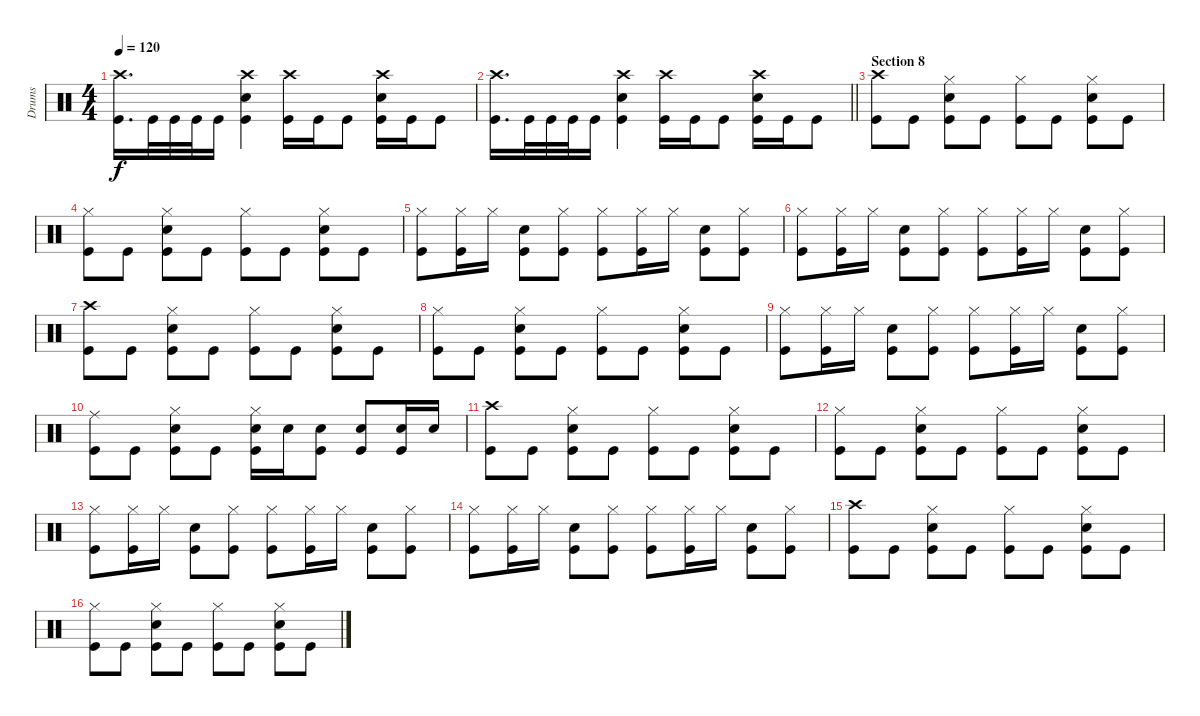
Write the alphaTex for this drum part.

\track ("Drums" "Drums") {instrument percussion}
\staff {score}
\articulation defaults
\ts (4 4)
\tempo 120
\clef neutral
\ks c
("Crash high (hit)" "Kick (hit)").16{d dy f} "Kick (hit)".32 "Kick (hit)".32 "Kick (hit)".32 "Kick (hit)".16 ("Crash high (hit)" "Snare (hit) 2" "Kick (hit)").4 ("Crash high (hit)" "Kick (hit)").16 "Kick (hit)".16 "Kick (hit)".8 ("Crash high (hit)" "Snare (hit) 2" "Kick (hit)").16 "Kick (hit)".16 "Kick (hit)".8 |
\barLineRight lightlight
("Crash high (hit)" "Kick (hit)").16{d} "Kick (hit)".32 "Kick (hit)".32 "Kick (hit)".32 "Kick (hit)".16 ("Crash high (hit)" "Snare (hit) 2" "Kick (hit)").4 ("Crash high (hit)" "Kick (hit)").16 "Kick (hit)".16 "Kick (hit)".8 ("Crash high (hit)" "Snare (hit) 2" "Kick (hit)").16 "Kick (hit)".16 "Kick (hit)".8 |
\section ("" "Section 8")
("Crash high (hit)" "Kick (hit)").8 "Kick (hit)".8 ("Hi-Hat (closed)" "Snare (hit) 2" "Kick (hit)").8 "Kick (hit)".8 ("Hi-Hat (closed)" "Kick (hit)").8 "Kick (hit)".8 ("Hi-Hat (closed)" "Snare (hit) 2" "Kick (hit)").8 "Kick (hit)".8 |
("Hi-Hat (closed)" "Kick (hit)").8 "Kick (hit)".8 ("Hi-Hat (closed)" "Snare (hit) 2" "Kick (hit)").8 "Kick (hit)".8 ("Hi-Hat (closed)" "Kick (hit)").8 "Kick (hit)".8 ("Hi-Hat (closed)" "Snare (hit) 2" "Kick (hit)").8 "Kick (hit)".8 |
("Hi-Hat (closed)" "Kick (hit)").8 ("Hi-Hat (closed)" "Kick (hit)").16 "Hi-Hat (closed)".16 ("Snare (hit) 2" "Kick (hit)").8 ("Hi-Hat (closed)" "Kick (hit)").8 ("Hi-Hat (closed)" "Kick (hit)").8 ("Hi-Hat (closed)" "Kick (hit)").16 "Hi-Hat (closed)".16 ("Snare (hit) 2" "Kick (hit)").8 ("Hi-Hat (closed)" "Kick (hit)").8 |
("Hi-Hat (closed)" "Kick (hit)").8 ("Hi-Hat (closed)" "Kick (hit)").16 "Hi-Hat (closed)".16 ("Snare (hit) 2" "Kick (hit)").8 ("Hi-Hat (closed)" "Kick (hit)").8 ("Hi-Hat (closed)" "Kick (hit)").8 ("Hi-Hat (closed)" "Kick (hit)").16 "Hi-Hat (closed)".16 ("Snare (hit) 2" "Kick (hit)").8 ("Hi-Hat (closed)" "Kick (hit)").8 |
("Crash high (hit)" "Kick (hit)").8 "Kick (hit)".8 ("Hi-Hat (closed)" "Snare (hit) 2" "Kick (hit)").8 "Kick (hit)".8 ("Hi-Hat (closed)" "Kick (hit)").8 "Kick (hit)".8 ("Hi-Hat (closed)" "Snare (hit) 2" "Kick (hit)").8 "Kick (hit)".8 |
("Hi-Hat (closed)" "Kick (hit)").8 "Kick (hit)".8 ("Hi-Hat (closed)" "Snare (hit) 2" "Kick (hit)").8 "Kick (hit)".8 ("Hi-Hat (closed)" "Kick (hit)").8 "Kick (hit)".8 ("Hi-Hat (closed)" "Snare (hit) 2" "Kick (hit)").8 "Kick (hit)".8 |
("Hi-Hat (closed)" "Kick (hit)").8 ("Hi-Hat (closed)" "Kick (hit)").16 "Hi-Hat (closed)".16 ("Snare (hit) 2" "Kick (hit)").8 ("Hi-Hat (closed)" "Kick (hit)").8 ("Hi-Hat (closed)" "Kick (hit)").8 ("Hi-Hat (closed)" "Kick (hit)").16 "Hi-Hat (closed)".16 ("Snare (hit) 2" "Kick (hit)").8 ("Hi-Hat (closed)" "Kick (hit)").8 |
("Ride (middle)" "Kick (hit)").8 "Kick (hit)".8 ("Hi-Hat (closed)" "Snare (hit) 2" "Kick (hit)").8 "Kick (hit)".8 ("Hi-Hat (closed)" "Snare (hit) 2" "Kick (hit)").16 "Snare (hit) 2".16 ("Snare (hit) 2" "Kick (hit)").8 ("Snare (hit) 2" "Kick (hit)").8 ("Snare (hit) 2" "Kick (hit)").16 "Snare (hit) 2".16 |
("Crash high (hit)" "Kick (hit)").8 "Kick (hit)".8 ("Hi-Hat (closed)" "Snare (hit) 2" "Kick (hit)").8 "Kick (hit)".8 ("Hi-Hat (closed)" "Kick (hit)").8 "Kick (hit)".8 ("Hi-Hat (closed)" "Snare (hit) 2" "Kick (hit)").8 "Kick (hit)".8 |
("Hi-Hat (closed)" "Kick (hit)").8 "Kick (hit)".8 ("Hi-Hat (closed)" "Snare (hit) 2" "Kick (hit)").8 "Kick (hit)".8 ("Hi-Hat (closed)" "Kick (hit)").8 "Kick (hit)".8 ("Hi-Hat (closed)" "Snare (hit) 2" "Kick (hit)").8 "Kick (hit)".8 |
("Hi-Hat (closed)" "Kick (hit)").8 ("Hi-Hat (closed)" "Kick (hit)").16 "Hi-Hat (closed)".16 ("Snare (hit) 2" "Kick (hit)").8 ("Hi-Hat (closed)" "Kick (hit)").8 ("Hi-Hat (closed)" "Kick (hit)").8 ("Hi-Hat (closed)" "Kick (hit)").16 "Hi-Hat (closed)".16 ("Snare (hit) 2" "Kick (hit)").8 ("Hi-Hat (closed)" "Kick (hit)").8 |
("Hi-Hat (closed)" "Kick (hit)").8 ("Hi-Hat (closed)" "Kick (hit)").16 "Hi-Hat (closed)".16 ("Snare (hit) 2" "Kick (hit)").8 ("Hi-Hat (closed)" "Kick (hit)").8 ("Hi-Hat (closed)" "Kick (hit)").8 ("Hi-Hat (closed)" "Kick (hit)").16 "Hi-Hat (closed)".16 ("Snare (hit) 2" "Kick (hit)").8 ("Hi-Hat (closed)" "Kick (hit)").8 |
("Crash high (hit)" "Kick (hit)").8 "Kick (hit)".8 ("Hi-Hat (closed)" "Snare (hit) 2" "Kick (hit)").8 "Kick (hit)".8 ("Hi-Hat (closed)" "Kick (hit)").8 "Kick (hit)".8 ("Hi-Hat (closed)" "Snare (hit) 2" "Kick (hit)").8 "Kick (hit)".8 |
("Hi-Hat (closed)" "Kick (hit)").8 "Kick (hit)".8 ("Hi-Hat (closed)" "Snare (hit) 2" "Kick (hit)").8 "Kick (hit)".8 ("Hi-Hat (closed)" "Kick (hit)").8 "Kick (hit)".8 ("Hi-Hat (closed)" "Snare (hit) 2" "Kick (hit)").8 "Kick (hit)".8
